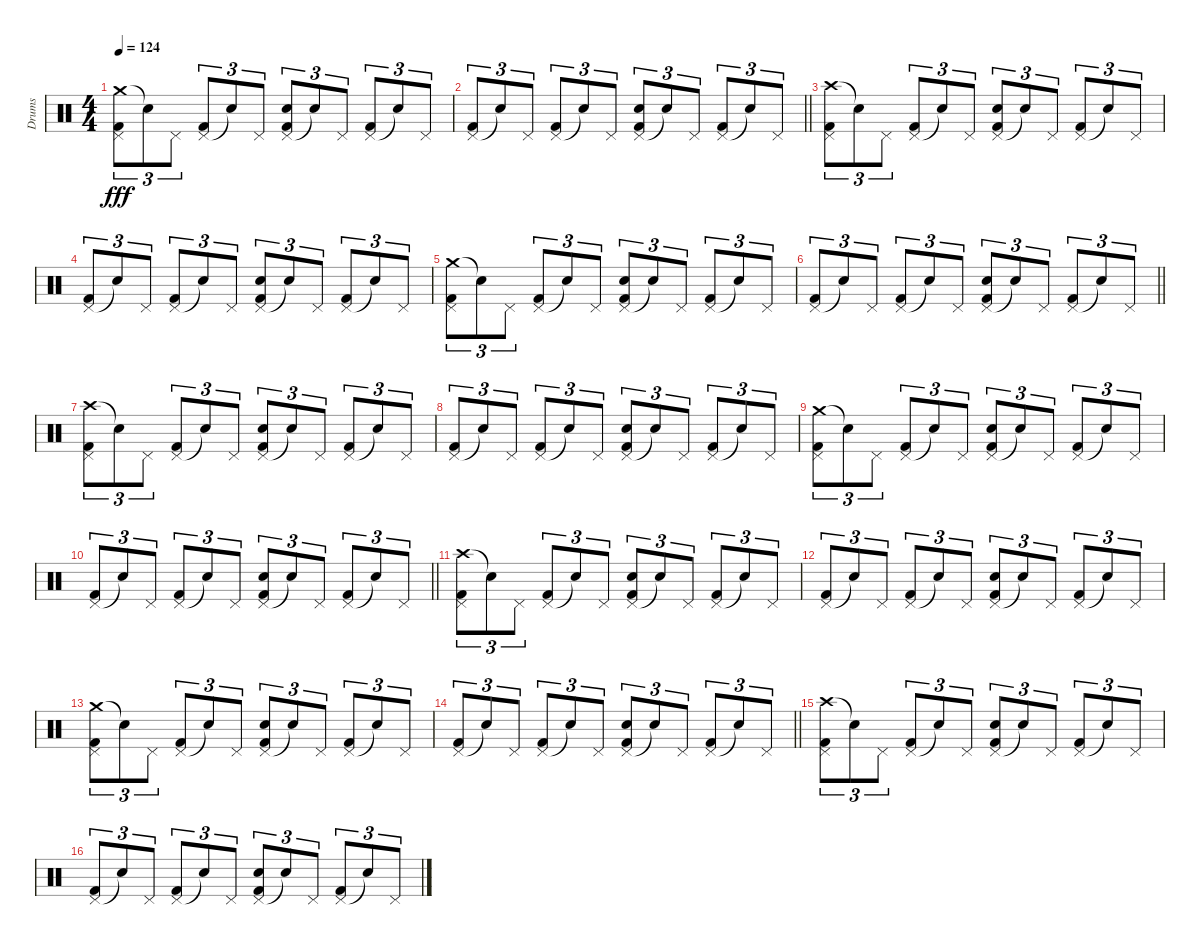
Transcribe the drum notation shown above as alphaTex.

\track ("Drums" "Drums") {instrument percussion}
\staff {score}
\articulation defaults
\ts (4 4)
\tempo 124
\clef neutral
\ks c
("Crash medium (hit)" "Pedal Hi-Hat (hit)" "Kick (hit) 2").8{tu (3 2) dy fff} "Snare (hit)"{t}.8{tu (3 2)} "Pedal Hi-Hat (hit)".8{tu (3 2)} ("Pedal Hi-Hat (hit)" "Kick (hit) 2").8{tu (3 2)} "Snare (hit)"{t}.8{tu (3 2)} "Pedal Hi-Hat (hit)".8{tu (3 2)} ("Pedal Hi-Hat (hit)" "Snare (hit) 2" "Kick (hit) 2").8{tu (3 2)} "Snare (hit)"{t}.8{tu (3 2)} "Pedal Hi-Hat (hit)".8{tu (3 2)} ("Pedal Hi-Hat (hit)" "Kick (hit) 2").8{tu (3 2)} "Snare (hit)"{t}.8{tu (3 2)} "Pedal Hi-Hat (hit)".8{tu (3 2)} |
\barLineRight lightlight
("Pedal Hi-Hat (hit)" "Kick (hit) 2").8{tu (3 2)} "Snare (hit)"{t}.8{tu (3 2)} "Pedal Hi-Hat (hit)".8{tu (3 2)} ("Pedal Hi-Hat (hit)" "Kick (hit) 2").8{tu (3 2)} "Snare (hit)"{t}.8{tu (3 2)} "Pedal Hi-Hat (hit)".8{tu (3 2)} ("Pedal Hi-Hat (hit)" "Snare (hit) 2" "Kick (hit) 2").8{tu (3 2)} "Snare (hit)"{t}.8{tu (3 2)} "Pedal Hi-Hat (hit)".8{tu (3 2)} ("Pedal Hi-Hat (hit)" "Kick (hit) 2").8{tu (3 2)} "Snare (hit)"{t}.8{tu (3 2)} "Pedal Hi-Hat (hit)".8{tu (3 2)} |
("Crash high (hit)" "Pedal Hi-Hat (hit)" "Kick (hit) 2").8{tu (3 2)} "Snare (hit)"{t}.8{tu (3 2)} "Pedal Hi-Hat (hit)".8{tu (3 2)} ("Pedal Hi-Hat (hit)" "Kick (hit) 2").8{tu (3 2)} "Snare (hit)"{t}.8{tu (3 2)} "Pedal Hi-Hat (hit)".8{tu (3 2)} ("Pedal Hi-Hat (hit)" "Snare (hit) 2" "Kick (hit) 2").8{tu (3 2)} "Snare (hit)"{t}.8{tu (3 2)} "Pedal Hi-Hat (hit)".8{tu (3 2)} ("Pedal Hi-Hat (hit)" "Kick (hit) 2").8{tu (3 2)} "Snare (hit)"{t}.8{tu (3 2)} "Pedal Hi-Hat (hit)".8{tu (3 2)} |
("Pedal Hi-Hat (hit)" "Kick (hit) 2").8{tu (3 2)} "Snare (hit)"{t}.8{tu (3 2)} "Pedal Hi-Hat (hit)".8{tu (3 2)} ("Pedal Hi-Hat (hit)" "Kick (hit) 2").8{tu (3 2)} "Snare (hit)"{t}.8{tu (3 2)} "Pedal Hi-Hat (hit)".8{tu (3 2)} ("Pedal Hi-Hat (hit)" "Snare (hit) 2" "Kick (hit) 2").8{tu (3 2)} "Snare (hit)"{t}.8{tu (3 2)} "Pedal Hi-Hat (hit)".8{tu (3 2)} ("Pedal Hi-Hat (hit)" "Kick (hit) 2").8{tu (3 2)} "Snare (hit)"{t}.8{tu (3 2)} "Pedal Hi-Hat (hit)".8{tu (3 2)} |
("Crash medium (hit)" "Pedal Hi-Hat (hit)" "Kick (hit) 2").8{tu (3 2)} "Snare (hit)"{t}.8{tu (3 2)} "Pedal Hi-Hat (hit)".8{tu (3 2)} ("Pedal Hi-Hat (hit)" "Kick (hit) 2").8{tu (3 2)} "Snare (hit)"{t}.8{tu (3 2)} "Pedal Hi-Hat (hit)".8{tu (3 2)} ("Pedal Hi-Hat (hit)" "Snare (hit) 2" "Kick (hit) 2").8{tu (3 2)} "Snare (hit)"{t}.8{tu (3 2)} "Pedal Hi-Hat (hit)".8{tu (3 2)} ("Pedal Hi-Hat (hit)" "Kick (hit) 2").8{tu (3 2)} "Snare (hit)"{t}.8{tu (3 2)} "Pedal Hi-Hat (hit)".8{tu (3 2)} |
\barLineRight lightlight
("Pedal Hi-Hat (hit)" "Kick (hit) 2").8{tu (3 2)} "Snare (hit)"{t}.8{tu (3 2)} "Pedal Hi-Hat (hit)".8{tu (3 2)} ("Pedal Hi-Hat (hit)" "Kick (hit) 2").8{tu (3 2)} "Snare (hit)"{t}.8{tu (3 2)} "Pedal Hi-Hat (hit)".8{tu (3 2)} ("Pedal Hi-Hat (hit)" "Snare (hit) 2" "Kick (hit) 2").8{tu (3 2)} "Snare (hit)"{t}.8{tu (3 2)} "Pedal Hi-Hat (hit)".8{tu (3 2)} ("Pedal Hi-Hat (hit)" "Kick (hit) 2").8{tu (3 2)} "Snare (hit)"{t}.8{tu (3 2)} "Pedal Hi-Hat (hit)".8{tu (3 2)} |
("Crash high (hit)" "Pedal Hi-Hat (hit)" "Kick (hit) 2").8{tu (3 2)} "Snare (hit)"{t}.8{tu (3 2)} "Pedal Hi-Hat (hit)".8{tu (3 2)} ("Pedal Hi-Hat (hit)" "Kick (hit) 2").8{tu (3 2)} "Snare (hit)"{t}.8{tu (3 2)} "Pedal Hi-Hat (hit)".8{tu (3 2)} ("Pedal Hi-Hat (hit)" "Snare (hit) 2" "Kick (hit) 2").8{tu (3 2)} "Snare (hit)"{t}.8{tu (3 2)} "Pedal Hi-Hat (hit)".8{tu (3 2)} ("Pedal Hi-Hat (hit)" "Kick (hit) 2").8{tu (3 2)} "Snare (hit)"{t}.8{tu (3 2)} "Pedal Hi-Hat (hit)".8{tu (3 2)} |
("Pedal Hi-Hat (hit)" "Kick (hit) 2").8{tu (3 2)} "Snare (hit)"{t}.8{tu (3 2)} "Pedal Hi-Hat (hit)".8{tu (3 2)} ("Pedal Hi-Hat (hit)" "Kick (hit) 2").8{tu (3 2)} "Snare (hit)"{t}.8{tu (3 2)} "Pedal Hi-Hat (hit)".8{tu (3 2)} ("Pedal Hi-Hat (hit)" "Snare (hit) 2" "Kick (hit) 2").8{tu (3 2)} "Snare (hit)"{t}.8{tu (3 2)} "Pedal Hi-Hat (hit)".8{tu (3 2)} ("Pedal Hi-Hat (hit)" "Kick (hit) 2").8{tu (3 2)} "Snare (hit)"{t}.8{tu (3 2)} "Pedal Hi-Hat (hit)".8{tu (3 2)} |
("Crash medium (hit)" "Pedal Hi-Hat (hit)" "Kick (hit) 2").8{tu (3 2)} "Snare (hit)"{t}.8{tu (3 2)} "Pedal Hi-Hat (hit)".8{tu (3 2)} ("Pedal Hi-Hat (hit)" "Kick (hit) 2").8{tu (3 2)} "Snare (hit)"{t}.8{tu (3 2)} "Pedal Hi-Hat (hit)".8{tu (3 2)} ("Pedal Hi-Hat (hit)" "Snare (hit) 2" "Kick (hit) 2").8{tu (3 2)} "Snare (hit)"{t}.8{tu (3 2)} "Pedal Hi-Hat (hit)".8{tu (3 2)} ("Pedal Hi-Hat (hit)" "Kick (hit) 2").8{tu (3 2)} "Snare (hit)"{t}.8{tu (3 2)} "Pedal Hi-Hat (hit)".8{tu (3 2)} |
\barLineRight lightlight
("Pedal Hi-Hat (hit)" "Kick (hit) 2").8{tu (3 2)} "Snare (hit)"{t}.8{tu (3 2)} "Pedal Hi-Hat (hit)".8{tu (3 2)} ("Pedal Hi-Hat (hit)" "Kick (hit) 2").8{tu (3 2)} "Snare (hit)"{t}.8{tu (3 2)} "Pedal Hi-Hat (hit)".8{tu (3 2)} ("Pedal Hi-Hat (hit)" "Snare (hit) 2" "Kick (hit) 2").8{tu (3 2)} "Snare (hit)"{t}.8{tu (3 2)} "Pedal Hi-Hat (hit)".8{tu (3 2)} ("Pedal Hi-Hat (hit)" "Kick (hit) 2").8{tu (3 2)} "Snare (hit)"{t}.8{tu (3 2)} "Pedal Hi-Hat (hit)".8{tu (3 2)} |
("Crash high (hit)" "Pedal Hi-Hat (hit)" "Kick (hit) 2").8{tu (3 2)} "Snare (hit)"{t}.8{tu (3 2)} "Pedal Hi-Hat (hit)".8{tu (3 2)} ("Pedal Hi-Hat (hit)" "Kick (hit) 2").8{tu (3 2)} "Snare (hit)"{t}.8{tu (3 2)} "Pedal Hi-Hat (hit)".8{tu (3 2)} ("Pedal Hi-Hat (hit)" "Snare (hit) 2" "Kick (hit) 2").8{tu (3 2)} "Snare (hit)"{t}.8{tu (3 2)} "Pedal Hi-Hat (hit)".8{tu (3 2)} ("Pedal Hi-Hat (hit)" "Kick (hit) 2").8{tu (3 2)} "Snare (hit)"{t}.8{tu (3 2)} "Pedal Hi-Hat (hit)".8{tu (3 2)} |
("Pedal Hi-Hat (hit)" "Kick (hit) 2").8{tu (3 2)} "Snare (hit)"{t}.8{tu (3 2)} "Pedal Hi-Hat (hit)".8{tu (3 2)} ("Pedal Hi-Hat (hit)" "Kick (hit) 2").8{tu (3 2)} "Snare (hit)"{t}.8{tu (3 2)} "Pedal Hi-Hat (hit)".8{tu (3 2)} ("Pedal Hi-Hat (hit)" "Snare (hit) 2" "Kick (hit) 2").8{tu (3 2)} "Snare (hit)"{t}.8{tu (3 2)} "Pedal Hi-Hat (hit)".8{tu (3 2)} ("Pedal Hi-Hat (hit)" "Kick (hit) 2").8{tu (3 2)} "Snare (hit)"{t}.8{tu (3 2)} "Pedal Hi-Hat (hit)".8{tu (3 2)} |
("Crash medium (hit)" "Pedal Hi-Hat (hit)" "Kick (hit) 2").8{tu (3 2)} "Snare (hit)"{t}.8{tu (3 2)} "Pedal Hi-Hat (hit)".8{tu (3 2)} ("Pedal Hi-Hat (hit)" "Kick (hit) 2").8{tu (3 2)} "Snare (hit)"{t}.8{tu (3 2)} "Pedal Hi-Hat (hit)".8{tu (3 2)} ("Pedal Hi-Hat (hit)" "Snare (hit) 2" "Kick (hit) 2").8{tu (3 2)} "Snare (hit)"{t}.8{tu (3 2)} "Pedal Hi-Hat (hit)".8{tu (3 2)} ("Pedal Hi-Hat (hit)" "Kick (hit) 2").8{tu (3 2)} "Snare (hit)"{t}.8{tu (3 2)} "Pedal Hi-Hat (hit)".8{tu (3 2)} |
\barLineRight lightlight
("Pedal Hi-Hat (hit)" "Kick (hit) 2").8{tu (3 2)} "Snare (hit)"{t}.8{tu (3 2)} "Pedal Hi-Hat (hit)".8{tu (3 2)} ("Pedal Hi-Hat (hit)" "Kick (hit) 2").8{tu (3 2)} "Snare (hit)"{t}.8{tu (3 2)} "Pedal Hi-Hat (hit)".8{tu (3 2)} ("Pedal Hi-Hat (hit)" "Snare (hit) 2" "Kick (hit) 2").8{tu (3 2)} "Snare (hit)"{t}.8{tu (3 2)} "Pedal Hi-Hat (hit)".8{tu (3 2)} ("Pedal Hi-Hat (hit)" "Kick (hit) 2").8{tu (3 2)} "Snare (hit)"{t}.8{tu (3 2)} "Pedal Hi-Hat (hit)".8{tu (3 2)} |
("Crash high (hit)" "Pedal Hi-Hat (hit)" "Kick (hit) 2").8{tu (3 2)} "Snare (hit)"{t}.8{tu (3 2)} "Pedal Hi-Hat (hit)".8{tu (3 2)} ("Pedal Hi-Hat (hit)" "Kick (hit) 2").8{tu (3 2)} "Snare (hit)"{t}.8{tu (3 2)} "Pedal Hi-Hat (hit)".8{tu (3 2)} ("Pedal Hi-Hat (hit)" "Snare (hit) 2" "Kick (hit) 2").8{tu (3 2)} "Snare (hit)"{t}.8{tu (3 2)} "Pedal Hi-Hat (hit)".8{tu (3 2)} ("Pedal Hi-Hat (hit)" "Kick (hit) 2").8{tu (3 2)} "Snare (hit)"{t}.8{tu (3 2)} "Pedal Hi-Hat (hit)".8{tu (3 2)} |
("Pedal Hi-Hat (hit)" "Kick (hit) 2").8{tu (3 2)} "Snare (hit)"{t}.8{tu (3 2)} "Pedal Hi-Hat (hit)".8{tu (3 2)} ("Pedal Hi-Hat (hit)" "Kick (hit) 2").8{tu (3 2)} "Snare (hit)"{t}.8{tu (3 2)} "Pedal Hi-Hat (hit)".8{tu (3 2)} ("Pedal Hi-Hat (hit)" "Snare (hit) 2" "Kick (hit) 2").8{tu (3 2)} "Snare (hit)"{t}.8{tu (3 2)} "Pedal Hi-Hat (hit)".8{tu (3 2)} ("Pedal Hi-Hat (hit)" "Kick (hit) 2").8{tu (3 2)} "Snare (hit)"{t}.8{tu (3 2)} "Pedal Hi-Hat (hit)".8{tu (3 2)}
